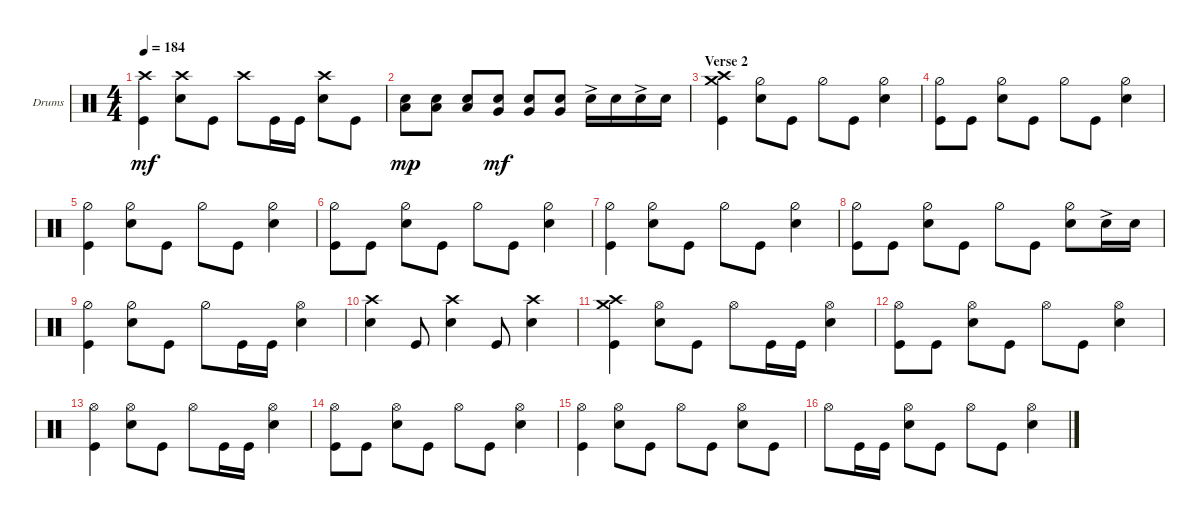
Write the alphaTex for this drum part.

\defaultSystemsLayout 4
\bracketExtendMode groupsimilarinstruments
\firstSystemTrackNameOrientation horizontal
\otherSystemsTrackNameOrientation horizontal
\track ("Drums (Phoenix)" "Drums") {instrument percussion}
\staff {score}
\articulation defaults
\ts (4 4)
\tempo 184
\clef neutral
\ks c
("Kick (hit)" "Crash high (hit)").4{dy mf} ("Snare (hit) 2" "Crash high (hit)").8 "Kick (hit)".8 "Crash high (hit)".8 "Kick (hit)".16 "Kick (hit)".16 ("Snare (hit) 2" "Crash high (hit)").8 "Kick (hit)".8 |
("Snare (hit) 2" "Low Tom (hit)").8{dy mp} ("Snare (hit) 2" "Low Tom (hit)").8 ("Snare (hit) 2" "Low Tom (hit)").8 ("Snare (hit) 2" "Very Low Tom (hit)").8{dy mf} ("Snare (hit) 2" "Very Low Tom (hit)").8 ("Snare (hit) 2" "Very Low Tom (hit)").8 "Snare (hit) 2"{ac}.16 "Snare (hit) 2".16 "Snare (hit) 2"{ac}.16 "Snare (hit) 2".16 |
\section ("" "Verse 2")
("Kick (hit)" "Crash medium (hit)" "Crash high (hit)").4 ("Snare (hit) 2" "Hi-Hat (half)").8 "Kick (hit)".8 "Hi-Hat (half)".8 "Kick (hit)".8 ("Snare (hit) 2" "Hi-Hat (half)").4 |
("Kick (hit)" "Hi-Hat (half)").8 "Kick (hit)".8 ("Snare (hit) 2" "Hi-Hat (half)").8 "Kick (hit)".8 "Hi-Hat (half)".8 "Kick (hit)".8 ("Snare (hit) 2" "Hi-Hat (half)").4 |
("Kick (hit)" "Hi-Hat (half)").4 ("Snare (hit) 2" "Hi-Hat (half)").8 "Kick (hit)".8 "Hi-Hat (half)".8 "Kick (hit)".8 ("Snare (hit) 2" "Hi-Hat (half)").4 |
("Kick (hit)" "Hi-Hat (half)").8 "Kick (hit)".8 ("Snare (hit) 2" "Hi-Hat (half)").8 "Kick (hit)".8 "Hi-Hat (half)".8 "Kick (hit)".8 ("Snare (hit) 2" "Hi-Hat (half)").4 |
("Kick (hit)" "Hi-Hat (half)").4 ("Snare (hit) 2" "Hi-Hat (half)").8 "Kick (hit)".8 "Hi-Hat (half)".8 "Kick (hit)".8 ("Snare (hit) 2" "Hi-Hat (half)").4 |
("Kick (hit)" "Hi-Hat (half)").8 "Kick (hit)".8 ("Snare (hit) 2" "Hi-Hat (half)").8 "Kick (hit)".8 "Hi-Hat (half)".8 "Kick (hit)".8 ("Snare (hit) 2" "Hi-Hat (half)").8 "Snare (hit) 2"{ac}.16 "Snare (hit) 2".16 |
("Kick (hit)" "Hi-Hat (half)").4 ("Snare (hit) 2" "Hi-Hat (half)").8 "Kick (hit)".8 "Hi-Hat (half)".8 "Kick (hit)".16 "Kick (hit)".16 ("Snare (hit) 2" "Hi-Hat (open)").4 |
("Snare (hit) 2" "Crash high (hit)").4 "Kick (hit)".8 ("Snare (hit) 2" "Crash high (hit)").4 "Kick (hit)".8 ("Snare (hit) 2" "Crash high (hit)").4 |
("Kick (hit)" "Crash medium (hit)" "Crash high (hit)").4 ("Snare (hit) 2" "Hi-Hat (open)").8 "Kick (hit)".8 "Hi-Hat (open)".8 "Kick (hit)".16 "Kick (hit)".16 ("Snare (hit) 2" "Hi-Hat (open)").4 |
("Kick (hit)" "Hi-Hat (open)").8 "Kick (hit)".8 ("Snare (hit) 2" "Hi-Hat (open)").8 "Kick (hit)".8 "Hi-Hat (open)".8 "Kick (hit)".8 ("Snare (hit) 2" "Hi-Hat (open)").4 |
("Kick (hit)" "Hi-Hat (open)").4 ("Snare (hit) 2" "Hi-Hat (open)").8 "Kick (hit)".8 "Hi-Hat (open)".8 "Kick (hit)".16 "Kick (hit)".16 ("Snare (hit) 2" "Hi-Hat (open)").4 |
("Kick (hit)" "Hi-Hat (open)").8 "Kick (hit)".8 ("Snare (hit) 2" "Hi-Hat (open)").8 "Kick (hit)".8 "Hi-Hat (open)".8 "Kick (hit)".8 ("Snare (hit) 2" "Hi-Hat (open)").4 |
("Kick (hit)" "Hi-Hat (open)").4 ("Snare (hit) 2" "Hi-Hat (open)").8 "Kick (hit)".8 "Hi-Hat (open)".8 "Kick (hit)".8 ("Snare (hit) 2" "Hi-Hat (open)").8 "Kick (hit)".8 |
"Hi-Hat (open)".8 "Kick (hit)".16 "Kick (hit)".16 ("Snare (hit) 2" "Hi-Hat (open)").8 "Kick (hit)".8 "Hi-Hat (open)".8 "Kick (hit)".8 ("Snare (hit) 2" "Hi-Hat (open)").4
